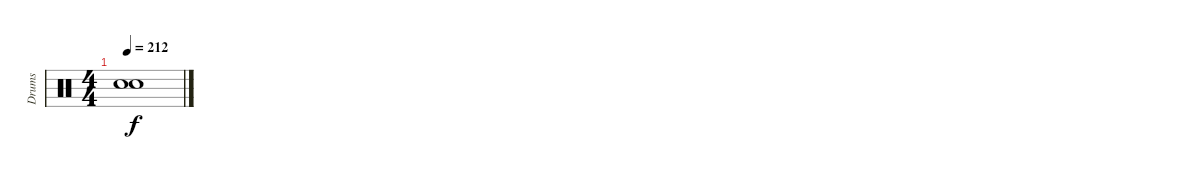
\track ("Drums" "Drums") {instrument percussion}
\staff {score}
\articulation defaults
\ts (4 4)
\tempo 212
\clef neutral
\ks c
("Snare (hit)"{t} "Snare (hit)"{t}).1{dy f}
